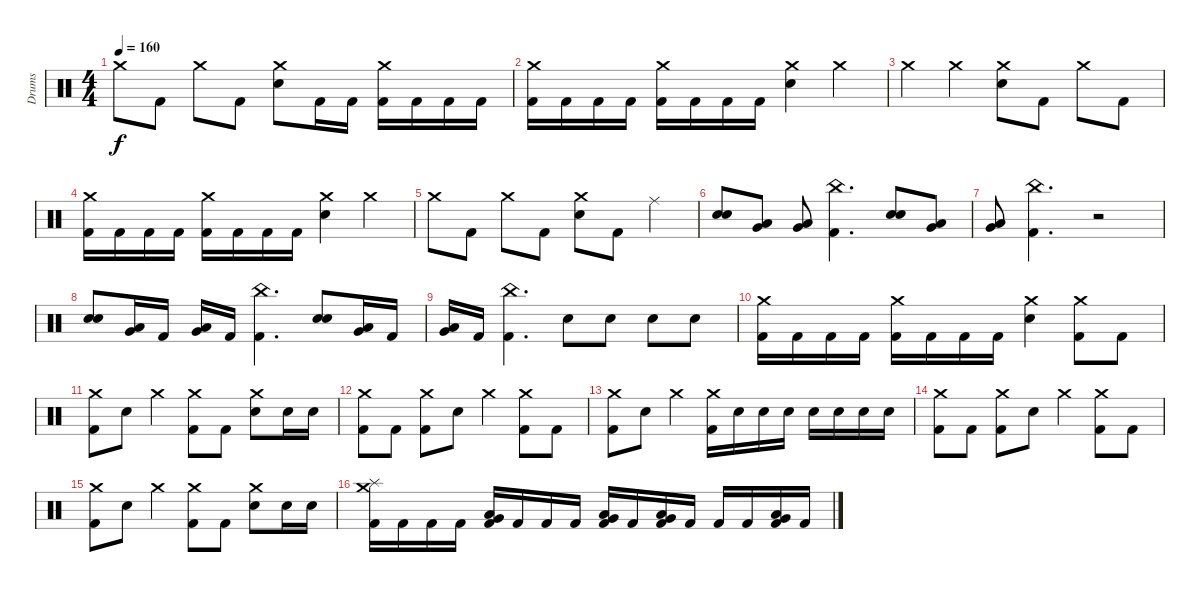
\track ("Drums" "Drums") {instrument percussion}
\staff {score}
\articulation defaults
\ts (4 4)
\tempo 160
\clef neutral
\ks c "Crash medium (hit)".8{dy f} "Kick (hit) 2".8 "Crash medium (hit)".8 "Kick (hit) 2".8
("Crash medium (hit)" "Electric Snare (hit)").8 "Kick (hit) 2".16 "Kick (hit) 2".16 ("Crash medium (hit)" "Kick (hit) 2").16 "Kick (hit) 2".16 "Kick (hit) 2".16 "Kick (hit) 2".16 |
("Crash medium (hit)" "Kick (hit) 2").16 "Kick (hit) 2".16 "Kick (hit) 2".16 "Kick (hit) 2".16 ("Crash medium (hit)" "Kick (hit) 2").16 "Kick (hit) 2".16 "Kick (hit) 2".16 "Kick (hit) 2".16 ("Crash medium (hit)" "Electric Snare (hit)").4 "Crash medium (hit)".4 |
"Crash medium (hit)".4 "Crash medium (hit)".4 ("Crash medium (hit)" "Electric Snare (hit)").8 "Kick (hit) 2".8 "Crash medium (hit)".8 "Kick (hit) 2".8 |
("Crash medium (hit)" "Kick (hit) 2").16 "Kick (hit) 2".16 "Kick (hit) 2".16 "Kick (hit) 2".16 ("Crash medium (hit)" "Kick (hit) 2").16 "Kick (hit) 2".16 "Kick (hit) 2".16 "Kick (hit) 2".16 ("Crash medium (hit)" "Electric Snare (hit)").4 "Crash medium (hit)".4 |
"Crash medium (hit)".8 "Kick (hit) 2".8 "Crash medium (hit)".8 "Kick (hit) 2".8 ("Crash medium (hit)" "Electric Snare (hit)").8 "Kick (hit) 2".8 "Ride (middle)".4 |
("Electric Snare (hit)" "Electric Snare (hit)").8 ("Low Floor Tom (hit)" "Very Low Tom (hit)").8 ("Low Floor Tom (hit)" "Very Low Tom (hit)").8 ("China (hit)" "Kick (hit) 2").4{d} ("Electric Snare (hit)" "Electric Snare (hit)").8 ("Low Floor Tom (hit)" "Very Low Tom (hit)").8 |
("Low Floor Tom (hit)" "Very Low Tom (hit)").8 ("China (hit)" "Kick (hit) 2").4{d} r.2 |
("Electric Snare (hit)" "Electric Snare (hit)").8 ("Low Floor Tom (hit)" "Very Low Tom (hit)").16 "Kick (hit) 2".16 ("Low Floor Tom (hit)" "Very Low Tom (hit)").16 "Kick (hit) 2".16 ("China (hit)" "Kick (hit) 2").4{d} ("Electric Snare (hit)" "Electric Snare (hit)").8 ("Low Floor Tom (hit)" "Very Low Tom (hit)").16 "Kick (hit) 2".16 |
("Low Floor Tom (hit)" "Very Low Tom (hit)").16 "Kick (hit) 2".16 ("China (hit)" "Kick (hit) 2").4{d} "Electric Snare (hit)".8 "Electric Snare (hit)".8 "Electric Snare (hit)".8 "Electric Snare (hit)".8 |
("Crash medium (hit)" "Kick (hit) 2").16 "Kick (hit) 2".16 "Kick (hit) 2".16 "Kick (hit) 2".16 ("Crash medium (hit)" "Kick (hit) 2").16 "Kick (hit) 2".16 "Kick (hit) 2".16 "Kick (hit) 2".16 ("Crash medium (hit)" "Electric Snare (hit)").4 ("Crash medium (hit)" "Kick (hit) 2").8 "Kick (hit) 2".8 |
("Crash medium (hit)" "Kick (hit) 2").8 "Electric Snare (hit)".8 "Crash medium (hit)".4 ("Crash medium (hit)" "Kick (hit) 2").8 "Kick (hit) 2".8 ("Crash medium (hit)" "Electric Snare (hit)").8 "Electric Snare (hit)".16 "Electric Snare (hit)".16 |
("Crash medium (hit)" "Kick (hit) 2").8 "Kick (hit) 2".8 ("Crash medium (hit)" "Kick (hit) 2").8 "Electric Snare (hit)".8 "Crash medium (hit)".4 ("Crash medium (hit)" "Kick (hit) 2").8 "Kick (hit) 2".8 |
("Crash medium (hit)" "Kick (hit) 2").8 "Electric Snare (hit)".8 "Crash medium (hit)".4 ("Crash medium (hit)" "Kick (hit) 2").16 "Electric Snare (hit)".16 "Electric Snare (hit)".16 "Electric Snare (hit)".16 "Electric Snare (hit)".16 "Electric Snare (hit)".16 "Electric Snare (hit)".16 "Electric Snare (hit)".16 |
("Crash medium (hit)" "Kick (hit) 2").8 "Kick (hit) 2".8 ("Crash medium (hit)" "Kick (hit) 2").8 "Electric Snare (hit)".8 "Crash medium (hit)".4 ("Crash medium (hit)" "Kick (hit) 2").8 "Kick (hit) 2".8 |
("Crash medium (hit)" "Kick (hit) 2").8 "Electric Snare (hit)".8 "Crash medium (hit)".4 ("Crash medium (hit)" "Kick (hit) 2").8 "Kick (hit) 2".8 ("Crash medium (hit)" "Electric Snare (hit)").8 "Electric Snare (hit)".16 "Electric Snare (hit)".16 |
("Crash medium (hit)" "Splash (hit)" "Kick (hit) 2").16 "Kick (hit) 2".16 "Kick (hit) 2".16 "Kick (hit) 2".16 ("Very Low Tom (hit)" "Low Floor Tom (hit)" "Kick (hit) 2").16 "Kick (hit) 2".16 "Kick (hit) 2".16 "Kick (hit) 2".16 ("Very Low Tom (hit)" "Low Floor Tom (hit)" "Kick (hit) 2").16 "Kick (hit) 2".16 ("Very Low Tom (hit)" "Low Floor Tom (hit)" "Kick (hit) 2").16 "Kick (hit) 2".16 "Kick (hit) 2".16 "Kick (hit) 2".16 ("Very Low Tom (hit)" "Low Floor Tom (hit)" "Kick (hit) 2").16 "Kick (hit) 2".16
